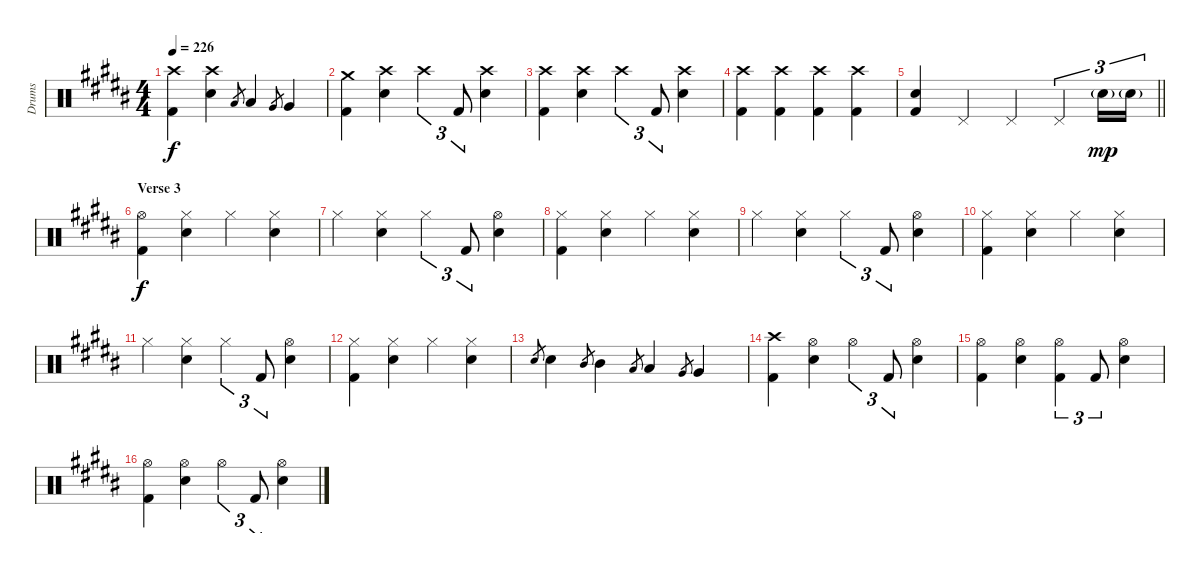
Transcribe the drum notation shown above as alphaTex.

\track ("Drums" "Drums") {instrument percussion}
\staff {score}
\articulation defaults
\ts (4 4)
\tempo 226
\clef neutral
\ks b
("Crash high (hit)" "Kick (hit) 2").4{dy f} ("Crash high (hit)" "Snare (hit) 2").4 "Low Tom (hit)".8{gr} "Low Tom (hit)".4 "Very Low Tom (hit)".8{gr} "Very Low Tom (hit)".4 |
("Crash medium (hit)" "Kick (hit) 2").4 ("Crash high (hit)" "Snare (hit) 2").4 "Crash high (hit)".4{tu (3 2)} "Kick (hit) 2".8{tu (3 2)} ("Crash high (hit)" "Snare (hit) 2").4 |
("Crash high (hit)" "Kick (hit) 2").4 ("Crash high (hit)" "Snare (hit) 2").4 "Crash high (hit)".4{tu (3 2)} "Kick (hit) 2".8{tu (3 2)} ("Crash high (hit)" "Snare (hit) 2").4 |
("Crash high (hit)" "Kick (hit) 2").4 ("Crash high (hit)" "Kick (hit) 2").4 ("Crash high (hit)" "Kick (hit) 2").4 ("Crash high (hit)" "Kick (hit) 2").4 |
\barLineRight lightlight
("Snare (hit) 2" "Kick (hit) 2").4 "Pedal Hi-Hat (hit)".4 "Pedal Hi-Hat (hit)".4 "Pedal Hi-Hat (hit)".4{tu (3 2)} "Snare (hit) 2"{g}.16{tu (3 2) dy mp} "Snare (hit) 2"{g}.16{tu (3 2)} |
\section ("" "Verse 3")
("Hi-Hat (open)" "Kick (hit) 2").4{dy f} ("Hi-Hat (closed)" "Snare (hit) 2").4 "Hi-Hat (closed)".4 ("Hi-Hat (closed)" "Snare (hit) 2").4 |
"Hi-Hat (closed)".4 ("Hi-Hat (closed)" "Snare (hit) 2").4 "Hi-Hat (closed)".4{tu (3 2)} "Kick (hit) 2".8{tu (3 2)} ("Hi-Hat (open)" "Snare (hit) 2").4 |
("Hi-Hat (closed)" "Kick (hit) 2").4 ("Hi-Hat (closed)" "Snare (hit) 2").4 "Hi-Hat (closed)".4 ("Hi-Hat (closed)" "Snare (hit) 2").4 |
"Hi-Hat (closed)".4 ("Hi-Hat (closed)" "Snare (hit) 2").4 "Hi-Hat (closed)".4{tu (3 2)} "Kick (hit) 2".8{tu (3 2)} ("Hi-Hat (open)" "Snare (hit) 2").4 |
("Hi-Hat (closed)" "Kick (hit) 2").4 ("Hi-Hat (closed)" "Snare (hit) 2").4 "Hi-Hat (closed)".4 ("Hi-Hat (closed)" "Snare (hit) 2").4 |
"Hi-Hat (closed)".4 ("Hi-Hat (closed)" "Snare (hit) 2").4 "Hi-Hat (closed)".4{tu (3 2)} "Kick (hit) 2".8{tu (3 2)} ("Hi-Hat (open)" "Snare (hit) 2").4 |
("Hi-Hat (closed)" "Kick (hit) 2").4 ("Hi-Hat (closed)" "Snare (hit) 2").4 "Hi-Hat (closed)".4 ("Hi-Hat (closed)" "Snare (hit) 2").4 |
"Snare (hit) 2".8{gr} "Snare (hit) 2".4 "Mid Tom (hit)".8{gr} "Mid Tom (hit)".4 "Low Tom (hit)".8{gr} "Low Tom (hit)".4 "Very Low Tom (hit)".8{gr} "Very Low Tom (hit)".4 |
("Crash high (hit)" "Kick (hit) 2").4 ("Hi-Hat (open)" "Snare (hit) 2").4 "Hi-Hat (open)".4{tu (3 2)} "Kick (hit) 2".8{tu (3 2)} ("Hi-Hat (open)" "Snare (hit) 2").4 |
("Hi-Hat (open)" "Kick (hit) 2").4 ("Hi-Hat (open)" "Snare (hit) 2").4 ("Hi-Hat (open)" "Kick (hit) 2").4{tu (3 2)} "Kick (hit) 2".8{tu (3 2)} ("Hi-Hat (open)" "Snare (hit) 2").4 |
("Hi-Hat (open)" "Kick (hit) 2").4 ("Hi-Hat (open)" "Snare (hit) 2").4 "Hi-Hat (open)".4{tu (3 2)} "Kick (hit) 2".8{tu (3 2)} ("Hi-Hat (open)" "Snare (hit) 2").4
